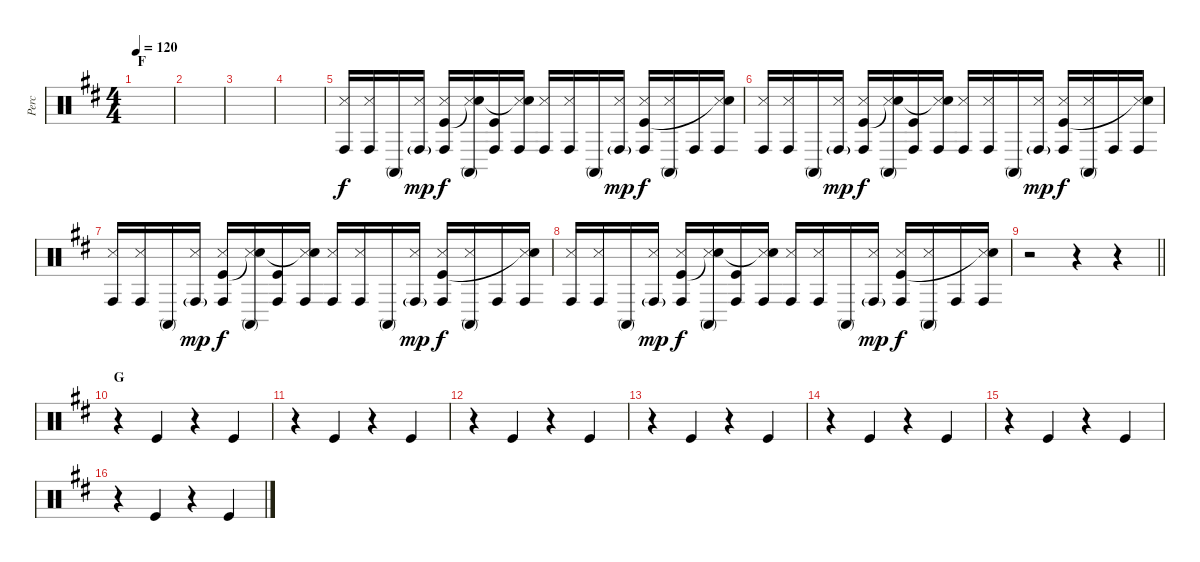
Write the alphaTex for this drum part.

\track ("Perc" "Perc") {instrument percussion}
\staff {score}
\articulation defaults
\ts (4 4)
\section ("" "F")
\tempo 120
\clef neutral
\ks d
|
|
|
|
("Conga high (hit)" "Snare (side stick) 3").16 ("Conga high (hit)" "Snare (side stick) 3").16 "Conga high (mute)".16 ("Conga high (hit)"{g} "Snare (side stick) 3").16{dy mp} ("Conga high (hit)" "Snare (side stick) 3" "Kick (hit)").16{dy f} ("Conga high (mute)" "Snare (side stick) 3" "Snare (hit)"{t}).16 ("Conga high (hit)" "Kick (hit)").16 ("Conga high (hit)" "Snare (side stick) 3" "Snare (hit)"{t}).16 ("Conga high (hit)" "Snare (side stick) 3").16 ("Conga high (hit)" "Snare (side stick) 3").16 "Conga high (mute)".16 ("Conga high (hit)"{g} "Snare (side stick) 3").16{dy mp} ("Conga high (hit)" "Snare (side stick) 3" "Kick (hit)").16{dy f} ("Conga high (mute)" "Snare (side stick) 3").16 "Conga high (hit)".16 ("Conga high (hit)" "Snare (side stick) 3" "Snare (hit)"{t}).16 |
("Conga high (hit)" "Snare (side stick) 3").16 ("Conga high (hit)" "Snare (side stick) 3").16 "Conga high (mute)".16 ("Conga high (hit)"{g} "Snare (side stick) 3").16{dy mp} ("Conga high (hit)" "Snare (side stick) 3" "Kick (hit)").16{dy f} ("Conga high (mute)" "Snare (side stick) 3" "Snare (hit)"{t}).16 ("Conga high (hit)" "Kick (hit)").16 ("Conga high (hit)" "Snare (side stick) 3" "Snare (hit)"{t}).16 ("Conga high (hit)" "Snare (side stick) 3").16 ("Conga high (hit)" "Snare (side stick) 3").16 "Conga high (mute)".16 ("Conga high (hit)"{g} "Snare (side stick) 3").16{dy mp} ("Conga high (hit)" "Snare (side stick) 3" "Kick (hit)").16{dy f} ("Conga high (mute)" "Snare (side stick) 3").16 "Conga high (hit)".16 ("Conga high (hit)" "Snare (side stick) 3" "Snare (hit)"{t}).16 |
("Conga high (hit)" "Snare (side stick) 3").16 ("Conga high (hit)" "Snare (side stick) 3").16 "Conga high (mute)".16 ("Conga high (hit)"{g} "Snare (side stick) 3").16{dy mp} ("Conga high (hit)" "Snare (side stick) 3" "Kick (hit)").16{dy f} ("Conga high (mute)" "Snare (side stick) 3" "Snare (hit)"{t}).16 ("Conga high (hit)" "Kick (hit)").16 ("Conga high (hit)" "Snare (side stick) 3" "Snare (hit)"{t}).16 ("Conga high (hit)" "Snare (side stick) 3").16 ("Conga high (hit)" "Snare (side stick) 3").16 "Conga high (mute)".16 ("Conga high (hit)"{g} "Snare (side stick) 3").16{dy mp} ("Conga high (hit)" "Snare (side stick) 3" "Kick (hit)").16{dy f} ("Conga high (mute)" "Snare (side stick) 3").16 "Conga high (hit)".16 ("Conga high (hit)" "Snare (side stick) 3" "Snare (hit)"{t}).16 |
("Conga high (hit)" "Snare (side stick) 3").16 ("Conga high (hit)" "Snare (side stick) 3").16 "Conga high (mute)".16 ("Conga high (hit)"{g} "Snare (side stick) 3").16{dy mp} ("Conga high (hit)" "Snare (side stick) 3" "Kick (hit)").16{dy f} ("Conga high (mute)" "Snare (side stick) 3" "Snare (hit)"{t}).16 ("Conga high (hit)" "Kick (hit)").16 ("Conga high (hit)" "Snare (side stick) 3" "Snare (hit)"{t}).16 ("Conga high (hit)" "Snare (side stick) 3").16 ("Conga high (hit)" "Snare (side stick) 3").16 "Conga high (mute)".16 ("Conga high (hit)"{g} "Snare (side stick) 3").16{dy mp} ("Conga high (hit)" "Snare (side stick) 3" "Kick (hit)").16{dy f} ("Conga high (mute)" "Snare (side stick) 3").16 "Conga high (hit)".16 ("Conga high (hit)" "Snare (side stick) 3" "Snare (hit)"{t}).16 |
\barLineRight lightlight
r.2{txt ""} r.4 r.4 |
\section ("" "G")
r.4 "Kick (hit)".4 r.4 "Kick (hit)".4 |
r.4 "Kick (hit)".4 r.4 "Kick (hit)".4 |
r.4 "Kick (hit)".4 r.4 "Kick (hit)".4 |
r.4 "Kick (hit)".4 r.4 "Kick (hit)".4 |
r.4 "Kick (hit)".4 r.4 "Kick (hit)".4 |
r.4 "Kick (hit)".4 r.4 "Kick (hit)".4 |
r.4 "Kick (hit)".4 r.4 "Kick (hit)".4
